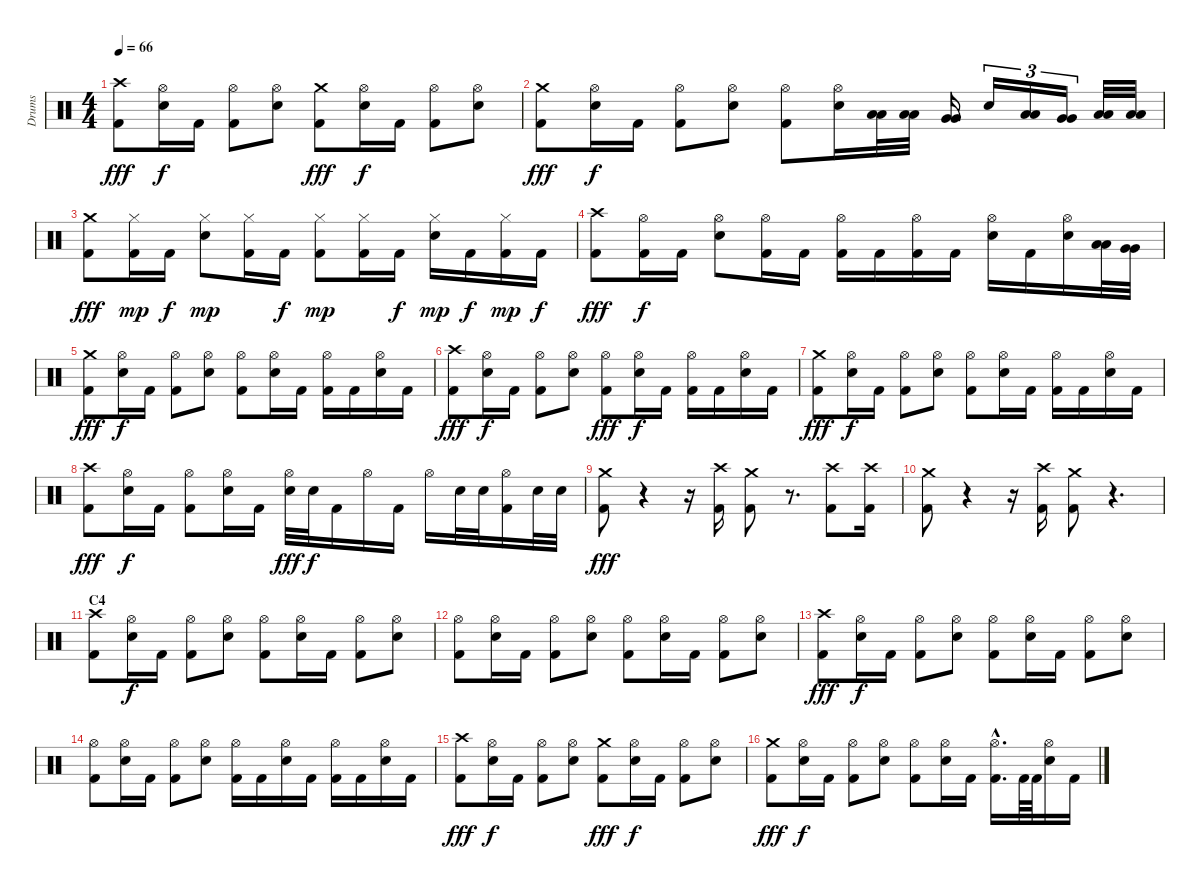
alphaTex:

\track ("Drums" "Drums") {instrument percussion}
\staff {score}
\articulation defaults
\ts (4 4)
\tempo 66
\clef neutral
\ks c
("Kick (hit) 2" "Crash high (hit)").8{dy fff} ("Electric Snare (hit)" "Hi-Hat (open)").16{dy f} "Kick (hit) 2".16 ("Kick (hit) 2" "Hi-Hat (open)").8 ("Electric Snare (hit)" "Hi-Hat (open)").8 ("Kick (hit) 2" "Crash medium (hit)").8{dy fff} ("Electric Snare (hit)" "Hi-Hat (open)").16{dy f} "Kick (hit) 2".16 ("Kick (hit) 2" "Hi-Hat (open)").8 ("Electric Snare (hit)" "Hi-Hat (open)").8 |
("Kick (hit) 2" "Crash medium (hit)").8{dy fff} ("Electric Snare (hit)" "Hi-Hat (open)").16{dy f} "Kick (hit) 2".16 ("Kick (hit) 2" "Hi-Hat (open)").8 ("Electric Snare (hit)" "Hi-Hat (open)").8 ("Kick (hit) 2" "Hi-Hat (open)").8 ("Electric Snare (hit)" "Hi-Hat (open)").16 ("Low Tom (hit)" "Low Tom (hit)").32 ("Low Tom (hit)" "Low Tom (hit)").32 ("Very Low Tom (hit)" "Very Low Tom (hit)").16 "Electric Snare (hit)".16{tu (3 2)} ("Low Tom (hit)" "Low Tom (hit)").16{tu (3 2)} ("Very Low Tom (hit)" "Very Low Tom (hit)").16{tu (3 2)} ("Low Floor Tom (hit)" "Low Floor Tom (hit)").32 ("Low Floor Tom (hit)" "Low Floor Tom (hit)").32 |
("Kick (hit) 2" "Crash medium (hit)").8{dy fff} ("Kick (hit) 2" "Hi-Hat (closed)").16{dy mp} "Kick (hit) 2".16{dy f} ("Electric Snare (hit)" "Hi-Hat (closed)").8{dy mp} ("Kick (hit) 2" "Hi-Hat (closed)").16 "Kick (hit) 2".16{dy f} ("Kick (hit) 2" "Hi-Hat (closed)").8{dy mp} ("Kick (hit) 2" "Hi-Hat (closed)").16 "Kick (hit) 2".16{dy f} ("Electric Snare (hit)" "Hi-Hat (closed)").16{dy mp} "Kick (hit) 2".16{dy f} ("Kick (hit) 2" "Hi-Hat (closed)").16{dy mp} "Kick (hit) 2".16{dy f} |
("Kick (hit) 2" "Crash high (hit)").8{dy fff} ("Kick (hit) 2" "Hi-Hat (open)").16{dy f} "Kick (hit) 2".16 ("Electric Snare (hit)" "Hi-Hat (open)").8 ("Kick (hit) 2" "Hi-Hat (open)").16 "Kick (hit) 2".16 ("Kick (hit) 2" "Hi-Hat (open)").16 "Kick (hit) 2".16 ("Kick (hit) 2" "Hi-Hat (open)").16 "Kick (hit) 2".16 ("Electric Snare (hit)" "Hi-Hat (open)").16 "Kick (hit) 2".16 ("Electric Snare (hit)" "Hi-Hat (open)").16 ("Low Tom (hit)" "Low Tom (hit)").32 ("Very Low Tom (hit)" "Very Low Tom (hit)").32 |
("Kick (hit) 2" "Crash medium (hit)").8{dy fff} ("Electric Snare (hit)" "Hi-Hat (open)").16{dy f} "Kick (hit) 2".16 ("Kick (hit) 2" "Hi-Hat (open)").8 ("Electric Snare (hit)" "Hi-Hat (open)").8 ("Kick (hit) 2" "Hi-Hat (open)").8 ("Electric Snare (hit)" "Hi-Hat (open)").16 "Kick (hit) 2".16 ("Kick (hit) 2" "Hi-Hat (open)").16 "Kick (hit) 2".16 ("Electric Snare (hit)" "Hi-Hat (open)").16 "Kick (hit) 2".16 |
("Kick (hit) 2" "Crash high (hit)").8{dy fff} ("Electric Snare (hit)" "Hi-Hat (open)").16{dy f} "Kick (hit) 2".16 ("Kick (hit) 2" "Hi-Hat (open)").8 ("Electric Snare (hit)" "Hi-Hat (open)").8 ("Kick (hit) 2" "Hi-Hat (open)").8{dy fff} ("Electric Snare (hit)" "Hi-Hat (open)").16{dy f} "Kick (hit) 2".16 ("Kick (hit) 2" "Hi-Hat (open)").16 "Kick (hit) 2".16 ("Electric Snare (hit)" "Hi-Hat (open)").16 "Kick (hit) 2".16 |
("Kick (hit) 2" "Crash medium (hit)").8{dy fff} ("Electric Snare (hit)" "Hi-Hat (open)").16{dy f} "Kick (hit) 2".16 ("Kick (hit) 2" "Hi-Hat (open)").8 ("Electric Snare (hit)" "Hi-Hat (open)").8 ("Kick (hit) 2" "Hi-Hat (open)").8 ("Electric Snare (hit)" "Hi-Hat (open)").16 "Kick (hit) 2".16 ("Kick (hit) 2" "Hi-Hat (open)").16 "Kick (hit) 2".16 ("Electric Snare (hit)" "Hi-Hat (open)").16 "Kick (hit) 2".16 |
("Kick (hit) 2" "Crash high (hit)").8{dy fff} ("Electric Snare (hit)" "Hi-Hat (open)").16{dy f} "Kick (hit) 2".16 ("Kick (hit) 2" "Hi-Hat (open)").8 ("Electric Snare (hit)" "Hi-Hat (open)").16 "Kick (hit) 2".16 ("Electric Snare (hit)" "Hi-Hat (open)").32{dy fff} "Electric Snare (hit)".32{dy f} "Kick (hit) 2".16 "Hi-Hat (open)".16 "Kick (hit) 2".16 "Hi-Hat (open)".16 "Electric Snare (hit)".32 "Electric Snare (hit)".32 ("Kick (hit) 2" "Hi-Hat (open)").16 "Electric Snare (hit)".32 "Electric Snare (hit)".32 |
("Kick (hit) 2" "Crash medium (hit)").8{dy fff} r.4 r.16 ("Kick (hit) 2" "Crash high (hit)").16 ("Kick (hit) 2" "Crash medium (hit)").8 r.8{d} ("Kick (hit) 2" "Crash high (hit)").8 ("Kick (hit) 2" "Crash high (hit)").16 |
("Kick (hit) 2" "Crash medium (hit)").8 r.4 r.16 ("Kick (hit) 2" "Crash high (hit)").16 ("Kick (hit) 2" "Crash medium (hit)").8 r.4{d} |
\section ("" "C4")
("Kick (hit) 2" "Crash high (hit)").8 ("Electric Snare (hit)" "Hi-Hat (open)").16{dy f} "Kick (hit) 2".16 ("Kick (hit) 2" "Hi-Hat (open)").8 ("Electric Snare (hit)" "Hi-Hat (open)").8 ("Kick (hit) 2" "Hi-Hat (open)").8 ("Electric Snare (hit)" "Hi-Hat (open)").16 "Kick (hit) 2".16 ("Kick (hit) 2" "Hi-Hat (open)").8 ("Electric Snare (hit)" "Hi-Hat (open)").8 |
("Kick (hit) 2" "Hi-Hat (open)").8 ("Electric Snare (hit)" "Hi-Hat (open)").16 "Kick (hit) 2".16 ("Kick (hit) 2" "Hi-Hat (open)").8 ("Electric Snare (hit)" "Hi-Hat (open)").8 ("Kick (hit) 2" "Hi-Hat (open)").8 ("Electric Snare (hit)" "Hi-Hat (open)").16 "Kick (hit) 2".16 ("Kick (hit) 2" "Hi-Hat (open)").8 ("Electric Snare (hit)" "Hi-Hat (open)").8 |
("Kick (hit) 2" "Crash high (hit)").8{dy fff} ("Electric Snare (hit)" "Hi-Hat (open)").16{dy f} "Kick (hit) 2".16 ("Kick (hit) 2" "Hi-Hat (open)").8 ("Electric Snare (hit)" "Hi-Hat (open)").8 ("Kick (hit) 2" "Hi-Hat (open)").8 ("Electric Snare (hit)" "Hi-Hat (open)").16 "Kick (hit) 2".16 ("Kick (hit) 2" "Hi-Hat (open)").8 ("Electric Snare (hit)" "Hi-Hat (open)").8 |
("Kick (hit) 2" "Hi-Hat (open)").8 ("Electric Snare (hit)" "Hi-Hat (open)").16 "Kick (hit) 2".16 ("Kick (hit) 2" "Hi-Hat (open)").8 ("Electric Snare (hit)" "Hi-Hat (open)").8 ("Kick (hit) 2" "Hi-Hat (open)").16 "Kick (hit) 2".16 ("Electric Snare (hit)" "Hi-Hat (open)").16 "Kick (hit) 2".16 ("Kick (hit) 2" "Hi-Hat (open)").16 "Kick (hit) 2".16 ("Electric Snare (hit)" "Hi-Hat (open)").16 "Kick (hit) 2".16 |
("Kick (hit) 2" "Crash high (hit)").8{dy fff} ("Electric Snare (hit)" "Hi-Hat (open)").16{dy f} "Kick (hit) 2".16 ("Kick (hit) 2" "Hi-Hat (open)").8 ("Electric Snare (hit)" "Hi-Hat (open)").8 ("Kick (hit) 2" "Crash medium (hit)").8{dy fff} ("Electric Snare (hit)" "Hi-Hat (open)").16{dy f} "Kick (hit) 2".16 ("Kick (hit) 2" "Hi-Hat (open)").8 ("Electric Snare (hit)" "Hi-Hat (open)").8 |
("Kick (hit) 2" "Crash medium (hit)").8{dy fff} ("Electric Snare (hit)" "Hi-Hat (open)").16{dy f} "Kick (hit) 2".16 ("Kick (hit) 2" "Hi-Hat (open)").8 ("Electric Snare (hit)" "Hi-Hat (open)").8 ("Kick (hit) 2" "Hi-Hat (open)").8 ("Electric Snare (hit)" "Hi-Hat (open)").16 "Kick (hit) 2".16 ("Kick (hit) 2"{hac} "Hi-Hat (open)"{hac}).16{d} "Kick (hit) 2".64 "Kick (hit) 2".64 ("Electric Snare (hit)" "Hi-Hat (open)").16 "Kick (hit) 2".16
